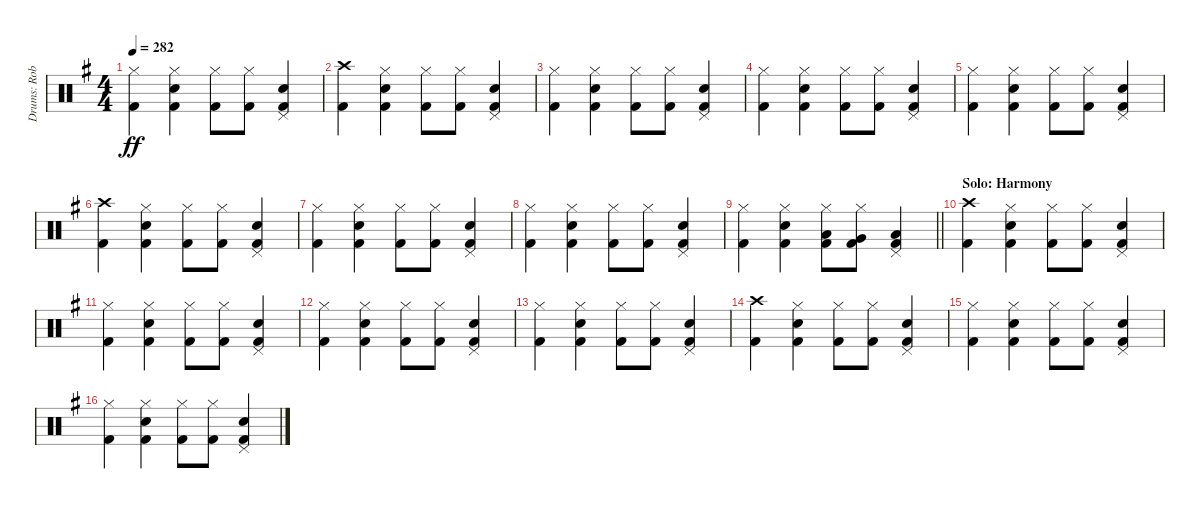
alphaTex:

\track ("Drums: Rob" "Drums: Rob") {instrument percussion}
\staff {score}
\articulation defaults
\ts (4 4)
\tempo 282
\clef neutral
\ks g
("Hi-Hat (closed)" "Kick (hit) 2").4{dy ff} ("Hi-Hat (closed)" "Snare (hit) 2" "Kick (hit) 2").4 ("Hi-Hat (closed)" "Kick (hit) 2").8 ("Hi-Hat (closed)" "Kick (hit) 2").8 ("Pedal Hi-Hat (hit)" "Snare (hit) 2" "Kick (hit) 2").4 |
("Crash high (hit)" "Kick (hit) 2").4 ("Hi-Hat (closed)" "Snare (hit) 2" "Kick (hit) 2").4 ("Hi-Hat (closed)" "Kick (hit) 2").8 ("Hi-Hat (closed)" "Kick (hit) 2").8 ("Pedal Hi-Hat (hit)" "Snare (hit) 2" "Kick (hit) 2").4 |
("Hi-Hat (closed)" "Kick (hit) 2").4 ("Hi-Hat (closed)" "Snare (hit) 2" "Kick (hit) 2").4 ("Hi-Hat (closed)" "Kick (hit) 2").8 ("Hi-Hat (closed)" "Kick (hit) 2").8 ("Pedal Hi-Hat (hit)" "Snare (hit) 2" "Kick (hit) 2").4 |
("Hi-Hat (closed)" "Kick (hit) 2").4 ("Hi-Hat (closed)" "Snare (hit) 2" "Kick (hit) 2").4 ("Hi-Hat (closed)" "Kick (hit) 2").8 ("Hi-Hat (closed)" "Kick (hit) 2").8 ("Pedal Hi-Hat (hit)" "Snare (hit) 2" "Kick (hit) 2").4 |
("Hi-Hat (closed)" "Kick (hit) 2").4 ("Hi-Hat (closed)" "Snare (hit) 2" "Kick (hit) 2").4 ("Hi-Hat (closed)" "Kick (hit) 2").8 ("Hi-Hat (closed)" "Kick (hit) 2").8 ("Pedal Hi-Hat (hit)" "Snare (hit) 2" "Kick (hit) 2").4 |
("Crash high (hit)" "Kick (hit) 2").4 ("Hi-Hat (closed)" "Snare (hit) 2" "Kick (hit) 2").4 ("Hi-Hat (closed)" "Kick (hit) 2").8 ("Hi-Hat (closed)" "Kick (hit) 2").8 ("Pedal Hi-Hat (hit)" "Snare (hit) 2" "Kick (hit) 2").4 |
("Hi-Hat (closed)" "Kick (hit) 2").4 ("Hi-Hat (closed)" "Snare (hit) 2" "Kick (hit) 2").4 ("Hi-Hat (closed)" "Kick (hit) 2").8 ("Hi-Hat (closed)" "Kick (hit) 2").8 ("Pedal Hi-Hat (hit)" "Snare (hit) 2" "Kick (hit) 2").4 |
("Hi-Hat (closed)" "Kick (hit) 2").4 ("Hi-Hat (closed)" "Snare (hit) 2" "Kick (hit) 2").4 ("Hi-Hat (closed)" "Kick (hit) 2").8 ("Hi-Hat (closed)" "Kick (hit) 2").8 ("Pedal Hi-Hat (hit)" "Snare (hit) 2" "Kick (hit) 2").4 |
\barLineRight lightlight
("Hi-Hat (closed)" "Kick (hit) 2").4 ("Hi-Hat (closed)" "Snare (hit) 2" "Kick (hit) 2").4 ("Hi-Hat (closed)" "Low Tom (hit)" "Kick (hit) 2").8 ("Hi-Hat (closed)" "Very Low Tom (hit)" "Kick (hit) 2").8 ("Pedal Hi-Hat (hit)" "Low Floor Tom (hit)" "Kick (hit) 2").4 |
\section ("" "Solo: Harmony")
("Crash high (hit)" "Kick (hit) 2").4 ("Hi-Hat (closed)" "Snare (hit) 2" "Kick (hit) 2").4 ("Hi-Hat (closed)" "Kick (hit) 2").8 ("Hi-Hat (closed)" "Kick (hit) 2").8 ("Pedal Hi-Hat (hit)" "Snare (hit) 2" "Kick (hit) 2").4 |
("Hi-Hat (closed)" "Kick (hit) 2").4 ("Hi-Hat (closed)" "Snare (hit) 2" "Kick (hit) 2").4 ("Hi-Hat (closed)" "Kick (hit) 2").8 ("Hi-Hat (closed)" "Kick (hit) 2").8 ("Pedal Hi-Hat (hit)" "Snare (hit) 2" "Kick (hit) 2").4 |
("Hi-Hat (closed)" "Kick (hit) 2").4 ("Hi-Hat (closed)" "Snare (hit) 2" "Kick (hit) 2").4 ("Hi-Hat (closed)" "Kick (hit) 2").8 ("Hi-Hat (closed)" "Kick (hit) 2").8 ("Pedal Hi-Hat (hit)" "Snare (hit) 2" "Kick (hit) 2").4 |
("Hi-Hat (closed)" "Kick (hit) 2").4 ("Hi-Hat (closed)" "Snare (hit) 2" "Kick (hit) 2").4 ("Hi-Hat (closed)" "Kick (hit) 2").8 ("Hi-Hat (closed)" "Kick (hit) 2").8 ("Pedal Hi-Hat (hit)" "Snare (hit) 2" "Kick (hit) 2").4 |
("Crash high (hit)" "Kick (hit) 2").4 ("Hi-Hat (closed)" "Snare (hit) 2" "Kick (hit) 2").4 ("Hi-Hat (closed)" "Kick (hit) 2").8 ("Hi-Hat (closed)" "Kick (hit) 2").8 ("Pedal Hi-Hat (hit)" "Snare (hit) 2" "Kick (hit) 2").4 |
("Hi-Hat (closed)" "Kick (hit) 2").4 ("Hi-Hat (closed)" "Snare (hit) 2" "Kick (hit) 2").4 ("Hi-Hat (closed)" "Kick (hit) 2").8 ("Hi-Hat (closed)" "Kick (hit) 2").8 ("Pedal Hi-Hat (hit)" "Snare (hit) 2" "Kick (hit) 2").4 |
("Hi-Hat (closed)" "Kick (hit) 2").4 ("Hi-Hat (closed)" "Snare (hit) 2" "Kick (hit) 2").4 ("Hi-Hat (closed)" "Kick (hit) 2").8 ("Hi-Hat (closed)" "Kick (hit) 2").8 ("Pedal Hi-Hat (hit)" "Snare (hit) 2" "Kick (hit) 2").4
